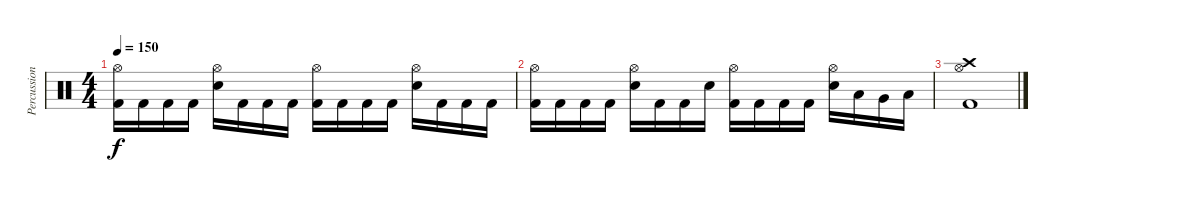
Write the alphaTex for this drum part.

\track ("Percussions" "Percussion") {instrument percussion}
\staff {score}
\articulation defaults
\ts (4 4)
\tempo 150
\clef neutral
\ks c
("Hi-Hat (open)" "Kick (hit) 2").16{dy f} "Kick (hit) 2".16 "Kick (hit) 2".16 "Kick (hit) 2".16 ("Hi-Hat (open)" "Electric Snare (hit)").16 "Kick (hit) 2".16 "Kick (hit) 2".16 "Kick (hit) 2".16 ("Hi-Hat (open)" "Kick (hit) 2").16 "Kick (hit) 2".16 "Kick (hit) 2".16 "Kick (hit) 2".16 ("Hi-Hat (open)" "Electric Snare (hit)").16 "Kick (hit) 2".16 "Kick (hit) 2".16 "Kick (hit) 2".16 |
("Hi-Hat (open)" "Kick (hit) 2").16 "Kick (hit) 2".16 "Kick (hit) 2".16 "Kick (hit) 2".16 ("Hi-Hat (open)" "Electric Snare (hit)").16 "Kick (hit) 2".16 "Kick (hit) 2".16 "Electric Snare (hit)".16 ("Hi-Hat (open)" "Kick (hit) 2").16 "Kick (hit) 2".16 "Kick (hit) 2".16 "Kick (hit) 2".16 ("Hi-Hat (open)" "Electric Snare (hit)").16 "Low Tom (hit)".16 "Very Low Tom (hit)".16 "Low Floor Tom (hit)".16 |
("Crash high (hit)" "Hi-Hat (open)" "Kick (hit) 2").1
